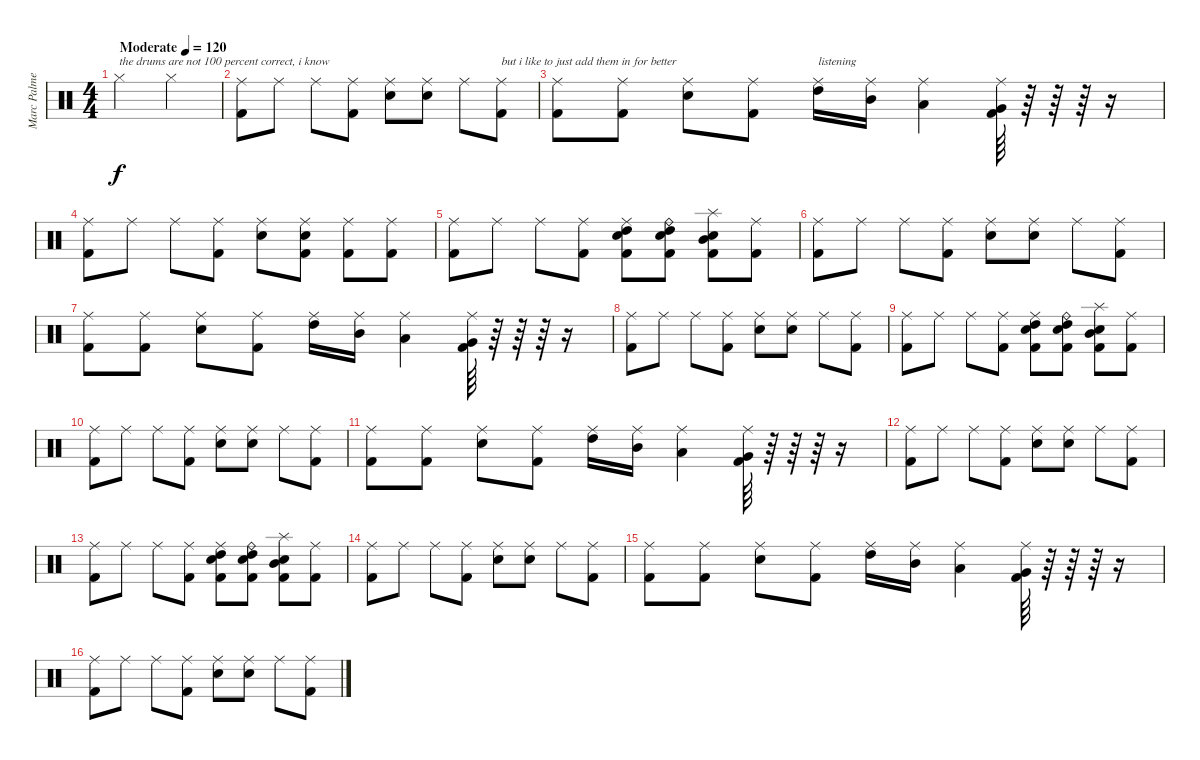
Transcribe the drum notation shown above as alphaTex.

\track ("Marc Palmen" "Marc Palme") {instrument percussion}
\staff {score}
\articulation defaults
\ts (4 4)
\tempo (120 "Moderate")
\clef neutral
\ks c "Hi-Hat (closed)".2{txt "the drums are not 100 percent correct, i know" dy f} "Hi-Hat (closed)".2
|
("Ride (middle)" "Kick (hit) 2").8 "Ride (middle)".8 "Ride (middle)".8 ("Ride (middle)" "Kick (hit) 2").8 ("Ride (middle)" "Electric Snare (hit)").8 ("Ride (middle)" "Electric Snare (hit)").8 "Ride (middle)".8 ("Ride (middle)" "Kick (hit) 2").8{txt "but i like to just add them in for better"} |
("Ride (middle)" "Kick (hit) 2").8 ("Ride (middle)" "Kick (hit) 2").8 ("Ride (middle)" "Electric Snare (hit)").8 ("Ride (middle)" "Kick (hit) 2").8 ("Ride (middle)" "High Tom (hit)").16{txt "listening"} ("Ride (middle)" "Mid Tom (hit)").16 ("Ride (middle)" "Low Tom (hit)").4 ("Ride (middle)" "Very Low Tom (hit)" "Kick (hit) 2").64 r.64 r.64 r.64 r.16 |
("Ride (middle)" "Kick (hit) 2").8 "Ride (middle)".8 "Ride (middle)".8 ("Ride (middle)" "Kick (hit) 2").8 ("Ride (middle)" "Electric Snare (hit)").8 ("Ride (middle)" "Electric Snare (hit)" "Kick (hit) 2").8 ("Ride (middle)" "Kick (hit) 2").8 ("Ride (middle)" "Kick (hit) 2").8 |
("Ride (middle)" "Kick (hit) 2").8 "Ride (middle)".8 "Ride (middle)".8 ("Ride (middle)" "Kick (hit) 2").8 ("High Tom (hit)" "Ride (middle)" "Electric Snare (hit)" "Kick (hit) 2").8 ("High Tom (hit)" "Ride (bell)" "Electric Snare (hit)" "Kick (hit) 2").8 ("Mid Tom (hit)" "Splash (hit)" "Electric Snare (hit)" "Kick (hit) 2").8 ("Ride (middle)" "Kick (hit) 2").8 |
("Ride (middle)" "Kick (hit) 2").8 "Ride (middle)".8 "Ride (middle)".8 ("Ride (middle)" "Kick (hit) 2").8 ("Ride (middle)" "Electric Snare (hit)").8 ("Ride (middle)" "Electric Snare (hit)").8 "Ride (middle)".8 ("Ride (middle)" "Kick (hit) 2").8 |
("Ride (middle)" "Kick (hit) 2").8 ("Ride (middle)" "Kick (hit) 2").8 ("Ride (middle)" "Electric Snare (hit)").8 ("Ride (middle)" "Kick (hit) 2").8 ("Ride (middle)" "High Tom (hit)").16 ("Ride (middle)" "Mid Tom (hit)").16 ("Ride (middle)" "Low Tom (hit)").4 ("Ride (middle)" "Very Low Tom (hit)" "Kick (hit) 2").64 r.64 r.64 r.64 r.16 |
("Ride (middle)" "Kick (hit) 2").8 "Ride (middle)".8 "Ride (middle)".8 ("Ride (middle)" "Kick (hit) 2").8 ("Ride (middle)" "Electric Snare (hit)").8 ("Ride (middle)" "Electric Snare (hit)").8 "Ride (middle)".8 ("Ride (middle)" "Kick (hit) 2").8 |
("Ride (middle)" "Kick (hit) 2").8 "Ride (middle)".8 "Ride (middle)".8 ("Ride (middle)" "Kick (hit) 2").8 ("High Tom (hit)" "Ride (middle)" "Electric Snare (hit)" "Kick (hit) 2").8 ("High Tom (hit)" "Ride (bell)" "Electric Snare (hit)" "Kick (hit) 2").8 ("Mid Tom (hit)" "Splash (hit)" "Electric Snare (hit)" "Kick (hit) 2").8 ("Ride (middle)" "Kick (hit) 2").8 |
("Ride (middle)" "Kick (hit) 2").8 "Ride (middle)".8 "Ride (middle)".8 ("Ride (middle)" "Kick (hit) 2").8 ("Ride (middle)" "Electric Snare (hit)").8 ("Ride (middle)" "Electric Snare (hit)").8 "Ride (middle)".8 ("Ride (middle)" "Kick (hit) 2").8 |
("Ride (middle)" "Kick (hit) 2").8 ("Ride (middle)" "Kick (hit) 2").8 ("Ride (middle)" "Electric Snare (hit)").8 ("Ride (middle)" "Kick (hit) 2").8 ("Ride (middle)" "High Tom (hit)").16 ("Ride (middle)" "Mid Tom (hit)").16 ("Ride (middle)" "Low Tom (hit)").4 ("Ride (middle)" "Very Low Tom (hit)" "Kick (hit) 2").64 r.64 r.64 r.64 r.16 |
("Ride (middle)" "Kick (hit) 2").8 "Ride (middle)".8 "Ride (middle)".8 ("Ride (middle)" "Kick (hit) 2").8 ("Ride (middle)" "Electric Snare (hit)").8 ("Ride (middle)" "Electric Snare (hit)").8 "Ride (middle)".8 ("Ride (middle)" "Kick (hit) 2").8 |
("Ride (middle)" "Kick (hit) 2").8 "Ride (middle)".8 "Ride (middle)".8 ("Ride (middle)" "Kick (hit) 2").8 ("High Tom (hit)" "Ride (middle)" "Electric Snare (hit)" "Kick (hit) 2").8 ("High Tom (hit)" "Ride (bell)" "Electric Snare (hit)" "Kick (hit) 2").8 ("Mid Tom (hit)" "Splash (hit)" "Electric Snare (hit)" "Kick (hit) 2").8 ("Ride (middle)" "Kick (hit) 2").8 |
("Ride (middle)" "Kick (hit) 2").8 "Ride (middle)".8 "Ride (middle)".8 ("Ride (middle)" "Kick (hit) 2").8 ("Ride (middle)" "Electric Snare (hit)").8 ("Ride (middle)" "Electric Snare (hit)").8 "Ride (middle)".8 ("Ride (middle)" "Kick (hit) 2").8 |
("Ride (middle)" "Kick (hit) 2").8 ("Ride (middle)" "Kick (hit) 2").8 ("Ride (middle)" "Electric Snare (hit)").8 ("Ride (middle)" "Kick (hit) 2").8 ("Ride (middle)" "High Tom (hit)").16 ("Ride (middle)" "Mid Tom (hit)").16 ("Ride (middle)" "Low Tom (hit)").4 ("Ride (middle)" "Very Low Tom (hit)" "Kick (hit) 2").64 r.64 r.64 r.64 r.16 |
("Ride (middle)" "Kick (hit) 2").8 "Ride (middle)".8 "Ride (middle)".8 ("Ride (middle)" "Kick (hit) 2").8 ("Ride (middle)" "Electric Snare (hit)").8 ("Ride (middle)" "Electric Snare (hit)").8 "Ride (middle)".8 ("Ride (middle)" "Kick (hit) 2").8
